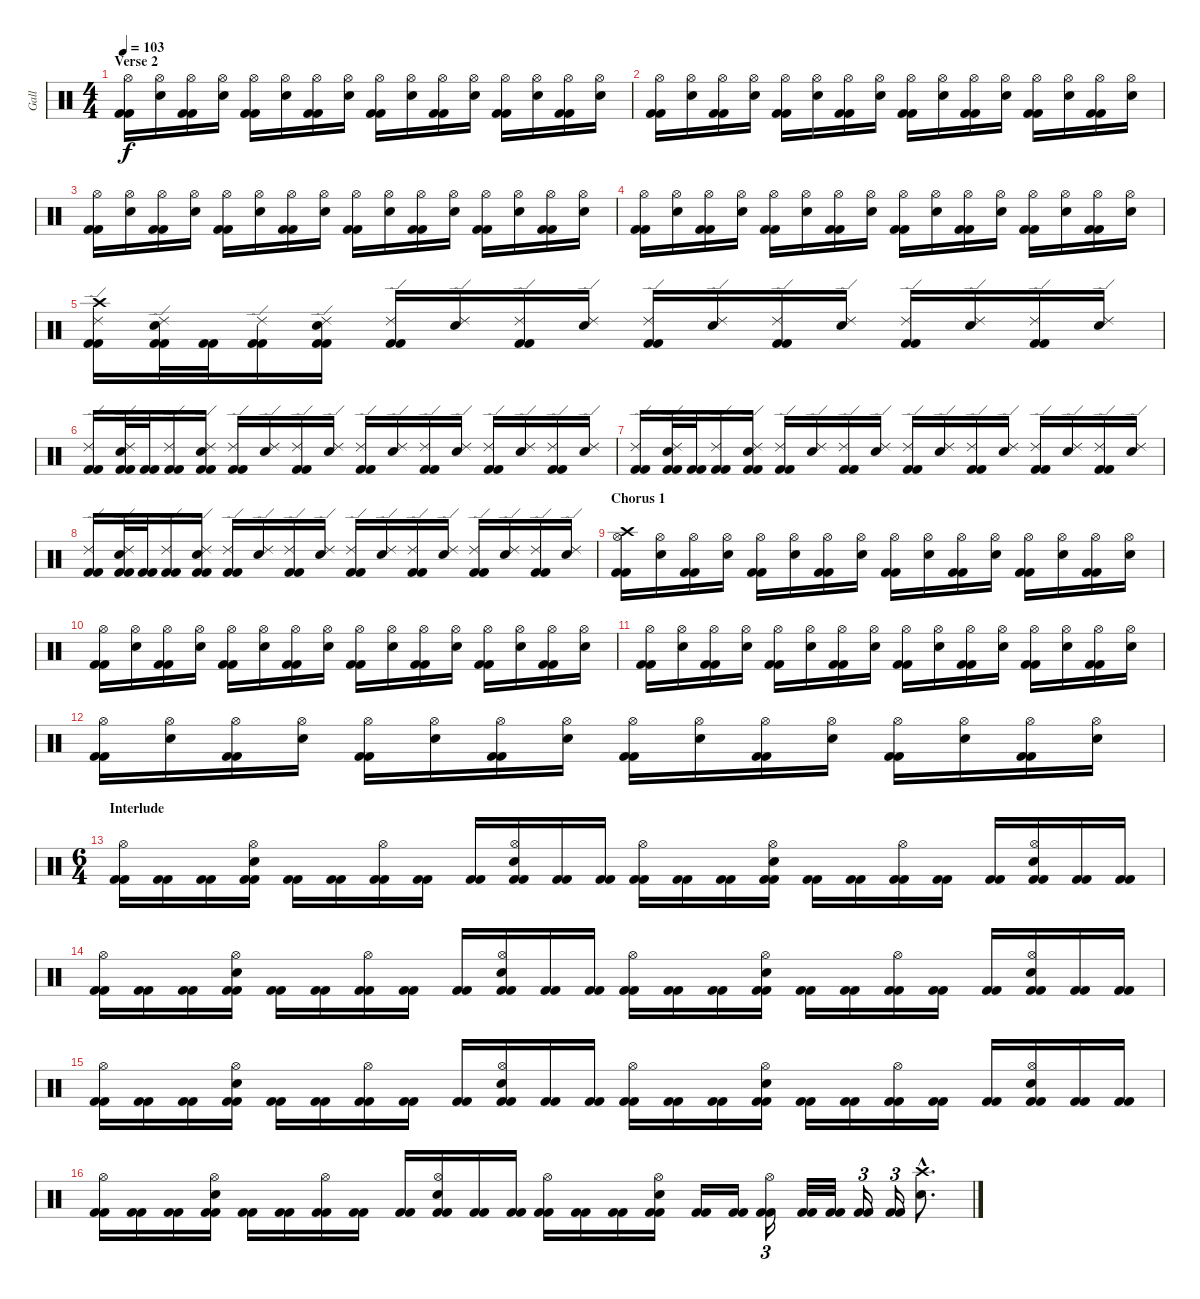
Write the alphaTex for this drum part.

\track ("Gall" "Gall") {instrument percussion}
\staff {score}
\articulation defaults
\ts (4 4)
\section ("" "Verse 2")
\tempo 103
\clef neutral
\ks c
("Kick (hit) 2" "Kick (hit) 2" "Hi-Hat (open)").16{dy f} ("Snare (hit) 2" "Hi-Hat (open)").16 ("Kick (hit) 2" "Kick (hit) 2" "Hi-Hat (open)").16 ("Snare (hit) 2" "Hi-Hat (open)").16 ("Kick (hit) 2" "Kick (hit) 2" "Hi-Hat (open)").16 ("Snare (hit) 2" "Hi-Hat (open)").16 ("Kick (hit) 2" "Kick (hit) 2" "Hi-Hat (open)").16 ("Snare (hit) 2" "Hi-Hat (open)").16 ("Kick (hit) 2" "Kick (hit) 2" "Hi-Hat (open)").16 ("Snare (hit) 2" "Hi-Hat (open)").16 ("Kick (hit) 2" "Kick (hit) 2" "Hi-Hat (open)").16 ("Snare (hit) 2" "Hi-Hat (open)").16 ("Kick (hit) 2" "Kick (hit) 2" "Hi-Hat (open)").16 ("Snare (hit) 2" "Hi-Hat (open)").16 ("Kick (hit) 2" "Kick (hit) 2" "Hi-Hat (open)").16 ("Snare (hit) 2" "Hi-Hat (open)").16 |
("Kick (hit) 2" "Kick (hit) 2" "Hi-Hat (open)").16 ("Snare (hit) 2" "Hi-Hat (open)").16 ("Kick (hit) 2" "Kick (hit) 2" "Hi-Hat (open)").16 ("Snare (hit) 2" "Hi-Hat (open)").16 ("Kick (hit) 2" "Kick (hit) 2" "Hi-Hat (open)").16 ("Snare (hit) 2" "Hi-Hat (open)").16 ("Kick (hit) 2" "Kick (hit) 2" "Hi-Hat (open)").16 ("Snare (hit) 2" "Hi-Hat (open)").16 ("Kick (hit) 2" "Kick (hit) 2" "Hi-Hat (open)").16 ("Snare (hit) 2" "Hi-Hat (open)").16 ("Kick (hit) 2" "Kick (hit) 2" "Hi-Hat (open)").16 ("Snare (hit) 2" "Hi-Hat (open)").16 ("Kick (hit) 2" "Kick (hit) 2" "Hi-Hat (open)").16 ("Snare (hit) 2" "Hi-Hat (open)").16 ("Kick (hit) 2" "Kick (hit) 2" "Hi-Hat (open)").16 ("Snare (hit) 2" "Hi-Hat (open)").16 |
("Kick (hit) 2" "Kick (hit) 2" "Hi-Hat (open)").16 ("Snare (hit) 2" "Hi-Hat (open)").16 ("Kick (hit) 2" "Kick (hit) 2" "Hi-Hat (open)").16 ("Snare (hit) 2" "Hi-Hat (open)").16 ("Kick (hit) 2" "Kick (hit) 2" "Hi-Hat (open)").16 ("Snare (hit) 2" "Hi-Hat (open)").16 ("Kick (hit) 2" "Kick (hit) 2" "Hi-Hat (open)").16 ("Snare (hit) 2" "Hi-Hat (open)").16 ("Kick (hit) 2" "Kick (hit) 2" "Hi-Hat (open)").16 ("Snare (hit) 2" "Hi-Hat (open)").16 ("Kick (hit) 2" "Kick (hit) 2" "Hi-Hat (open)").16 ("Snare (hit) 2" "Hi-Hat (open)").16 ("Kick (hit) 2" "Kick (hit) 2" "Hi-Hat (open)").16 ("Snare (hit) 2" "Hi-Hat (open)").16 ("Kick (hit) 2" "Kick (hit) 2" "Hi-Hat (open)").16 ("Snare (hit) 2" "Hi-Hat (open)").16 |
("Kick (hit) 2" "Kick (hit) 2" "Hi-Hat (open)").16 ("Snare (hit) 2" "Hi-Hat (open)").16 ("Kick (hit) 2" "Kick (hit) 2" "Hi-Hat (open)").16 ("Snare (hit) 2" "Hi-Hat (open)").16 ("Kick (hit) 2" "Kick (hit) 2" "Hi-Hat (open)").16 ("Snare (hit) 2" "Hi-Hat (open)").16 ("Kick (hit) 2" "Kick (hit) 2" "Hi-Hat (open)").16 ("Snare (hit) 2" "Hi-Hat (open)").16 ("Kick (hit) 2" "Kick (hit) 2" "Hi-Hat (open)").16 ("Snare (hit) 2" "Hi-Hat (open)").16 ("Kick (hit) 2" "Kick (hit) 2" "Hi-Hat (open)").16 ("Snare (hit) 2" "Hi-Hat (open)").16 ("Kick (hit) 2" "Kick (hit) 2" "Hi-Hat (open)").16 ("Snare (hit) 2" "Hi-Hat (open)").16 ("Kick (hit) 2" "Kick (hit) 2" "Hi-Hat (open)").16 ("Snare (hit) 2" "Hi-Hat (open)").16 |
("Kick (hit) 2" "Kick (hit) 2" "Ride (edge) 2" "Crash high (hit)").16 ("Kick (hit) 2" "Kick (hit) 2" "Snare (hit) 2" "Ride (edge) 2").32 ("Kick (hit) 2" "Kick (hit) 2").32 ("Kick (hit) 2" "Kick (hit) 2" "Ride (edge) 2").16 ("Kick (hit) 2" "Kick (hit) 2" "Snare (hit) 2" "Ride (edge) 2").16 ("Kick (hit) 2" "Kick (hit) 2" "Ride (edge) 2").16 ("Snare (hit) 2" "Ride (edge) 2").16 ("Kick (hit) 2" "Kick (hit) 2" "Ride (edge) 2").16 ("Snare (hit) 2" "Ride (edge) 2").16 ("Kick (hit) 2" "Kick (hit) 2" "Ride (edge) 2").16 ("Snare (hit) 2" "Ride (edge) 2").16 ("Kick (hit) 2" "Kick (hit) 2" "Ride (edge) 2").16 ("Snare (hit) 2" "Ride (edge) 2").16 ("Kick (hit) 2" "Kick (hit) 2" "Ride (edge) 2").16 ("Snare (hit) 2" "Ride (edge) 2").16 ("Kick (hit) 2" "Kick (hit) 2" "Ride (edge) 2").16 ("Snare (hit) 2" "Ride (edge) 2").16 |
("Kick (hit) 2" "Kick (hit) 2" "Ride (edge) 2").16 ("Kick (hit) 2" "Kick (hit) 2" "Snare (hit) 2" "Ride (edge) 2").32 ("Kick (hit) 2" "Kick (hit) 2").32 ("Kick (hit) 2" "Kick (hit) 2" "Ride (edge) 2").16 ("Kick (hit) 2" "Kick (hit) 2" "Snare (hit) 2" "Ride (edge) 2").16 ("Kick (hit) 2" "Kick (hit) 2" "Ride (edge) 2").16 ("Snare (hit) 2" "Ride (edge) 2").16 ("Kick (hit) 2" "Kick (hit) 2" "Ride (edge) 2").16 ("Snare (hit) 2" "Ride (edge) 2").16 ("Kick (hit) 2" "Kick (hit) 2" "Ride (edge) 2").16 ("Snare (hit) 2" "Ride (edge) 2").16 ("Kick (hit) 2" "Kick (hit) 2" "Ride (edge) 2").16 ("Snare (hit) 2" "Ride (edge) 2").16 ("Kick (hit) 2" "Kick (hit) 2" "Ride (edge) 2").16 ("Snare (hit) 2" "Ride (edge) 2").16 ("Kick (hit) 2" "Kick (hit) 2" "Ride (edge) 2").16 ("Snare (hit) 2" "Ride (edge) 2").16 |
("Kick (hit) 2" "Kick (hit) 2" "Ride (edge) 2").16 ("Kick (hit) 2" "Kick (hit) 2" "Snare (hit) 2" "Ride (edge) 2").32 ("Kick (hit) 2" "Kick (hit) 2").32 ("Kick (hit) 2" "Kick (hit) 2" "Ride (edge) 2").16 ("Kick (hit) 2" "Kick (hit) 2" "Snare (hit) 2" "Ride (edge) 2").16 ("Kick (hit) 2" "Kick (hit) 2" "Ride (edge) 2").16 ("Snare (hit) 2" "Ride (edge) 2").16 ("Kick (hit) 2" "Kick (hit) 2" "Ride (edge) 2").16 ("Snare (hit) 2" "Ride (edge) 2").16 ("Kick (hit) 2" "Kick (hit) 2" "Ride (edge) 2").16 ("Snare (hit) 2" "Ride (edge) 2").16 ("Kick (hit) 2" "Kick (hit) 2" "Ride (edge) 2").16 ("Snare (hit) 2" "Ride (edge) 2").16 ("Kick (hit) 2" "Kick (hit) 2" "Ride (edge) 2").16 ("Snare (hit) 2" "Ride (edge) 2").16 ("Kick (hit) 2" "Kick (hit) 2" "Ride (edge) 2").16 ("Snare (hit) 2" "Ride (edge) 2").16 |
("Kick (hit) 2" "Kick (hit) 2" "Ride (edge) 2").16 ("Kick (hit) 2" "Kick (hit) 2" "Snare (hit) 2" "Ride (edge) 2").32 ("Kick (hit) 2" "Kick (hit) 2").32 ("Kick (hit) 2" "Kick (hit) 2" "Ride (edge) 2").16 ("Kick (hit) 2" "Kick (hit) 2" "Snare (hit) 2" "Ride (edge) 2").16 ("Kick (hit) 2" "Kick (hit) 2" "Ride (edge) 2").16 ("Snare (hit) 2" "Ride (edge) 2").16 ("Kick (hit) 2" "Kick (hit) 2" "Ride (edge) 2").16 ("Snare (hit) 2" "Ride (edge) 2").16 ("Kick (hit) 2" "Kick (hit) 2" "Ride (edge) 2").16 ("Snare (hit) 2" "Ride (edge) 2").16 ("Kick (hit) 2" "Kick (hit) 2" "Ride (edge) 2").16 ("Snare (hit) 2" "Ride (edge) 2").16 ("Kick (hit) 2" "Kick (hit) 2" "Ride (edge) 2").16 ("Snare (hit) 2" "Ride (edge) 2").16 ("Kick (hit) 2" "Kick (hit) 2" "Ride (edge) 2").16 ("Snare (hit) 2" "Ride (edge) 2").16 |
\section ("" "Chorus 1")
("Kick (hit) 2" "Kick (hit) 2" "Hi-Hat (open)" "Crash high (hit)").16 ("Snare (hit) 2" "Hi-Hat (open)").16 ("Kick (hit) 2" "Kick (hit) 2" "Hi-Hat (open)").16 ("Snare (hit) 2" "Hi-Hat (open)").16 ("Kick (hit) 2" "Kick (hit) 2" "Hi-Hat (open)").16 ("Snare (hit) 2" "Hi-Hat (open)").16 ("Kick (hit) 2" "Kick (hit) 2" "Hi-Hat (open)").16 ("Snare (hit) 2" "Hi-Hat (open)").16 ("Kick (hit) 2" "Kick (hit) 2" "Hi-Hat (open)").16 ("Snare (hit) 2" "Hi-Hat (open)").16 ("Kick (hit) 2" "Kick (hit) 2" "Hi-Hat (open)").16 ("Snare (hit) 2" "Hi-Hat (open)").16 ("Kick (hit) 2" "Kick (hit) 2" "Hi-Hat (open)").16 ("Snare (hit) 2" "Hi-Hat (open)").16 ("Kick (hit) 2" "Kick (hit) 2" "Hi-Hat (open)").16 ("Snare (hit) 2" "Hi-Hat (open)").16 |
("Kick (hit) 2" "Kick (hit) 2" "Hi-Hat (open)").16 ("Snare (hit) 2" "Hi-Hat (open)").16 ("Kick (hit) 2" "Kick (hit) 2" "Hi-Hat (open)").16 ("Snare (hit) 2" "Hi-Hat (open)").16 ("Kick (hit) 2" "Kick (hit) 2" "Hi-Hat (open)").16 ("Snare (hit) 2" "Hi-Hat (open)").16 ("Kick (hit) 2" "Kick (hit) 2" "Hi-Hat (open)").16 ("Snare (hit) 2" "Hi-Hat (open)").16 ("Kick (hit) 2" "Kick (hit) 2" "Hi-Hat (open)").16 ("Snare (hit) 2" "Hi-Hat (open)").16 ("Kick (hit) 2" "Kick (hit) 2" "Hi-Hat (open)").16 ("Snare (hit) 2" "Hi-Hat (open)").16 ("Kick (hit) 2" "Kick (hit) 2" "Hi-Hat (open)").16 ("Snare (hit) 2" "Hi-Hat (open)").16 ("Kick (hit) 2" "Kick (hit) 2" "Hi-Hat (open)").16 ("Snare (hit) 2" "Hi-Hat (open)").16 |
("Kick (hit) 2" "Kick (hit) 2" "Hi-Hat (open)").16 ("Snare (hit) 2" "Hi-Hat (open)").16 ("Kick (hit) 2" "Kick (hit) 2" "Hi-Hat (open)").16 ("Snare (hit) 2" "Hi-Hat (open)").16 ("Kick (hit) 2" "Kick (hit) 2" "Hi-Hat (open)").16 ("Snare (hit) 2" "Hi-Hat (open)").16 ("Kick (hit) 2" "Kick (hit) 2" "Hi-Hat (open)").16 ("Snare (hit) 2" "Hi-Hat (open)").16 ("Kick (hit) 2" "Kick (hit) 2" "Hi-Hat (open)").16 ("Snare (hit) 2" "Hi-Hat (open)").16 ("Kick (hit) 2" "Kick (hit) 2" "Hi-Hat (open)").16 ("Snare (hit) 2" "Hi-Hat (open)").16 ("Kick (hit) 2" "Kick (hit) 2" "Hi-Hat (open)").16 ("Snare (hit) 2" "Hi-Hat (open)").16 ("Kick (hit) 2" "Kick (hit) 2" "Hi-Hat (open)").16 ("Snare (hit) 2" "Hi-Hat (open)").16 |
("Kick (hit) 2" "Kick (hit) 2" "Hi-Hat (open)").16 ("Snare (hit) 2" "Hi-Hat (open)").16 ("Kick (hit) 2" "Kick (hit) 2" "Hi-Hat (open)").16 ("Snare (hit) 2" "Hi-Hat (open)").16 ("Kick (hit) 2" "Kick (hit) 2" "Hi-Hat (open)").16 ("Snare (hit) 2" "Hi-Hat (open)").16 ("Kick (hit) 2" "Kick (hit) 2" "Hi-Hat (open)").16 ("Snare (hit) 2" "Hi-Hat (open)").16 ("Kick (hit) 2" "Kick (hit) 2" "Hi-Hat (open)").16 ("Snare (hit) 2" "Hi-Hat (open)").16 ("Kick (hit) 2" "Kick (hit) 2" "Hi-Hat (open)").16 ("Snare (hit) 2" "Hi-Hat (open)").16 ("Kick (hit) 2" "Kick (hit) 2" "Hi-Hat (open)").16 ("Snare (hit) 2" "Hi-Hat (open)").16 ("Kick (hit) 2" "Kick (hit) 2" "Hi-Hat (open)").16 ("Snare (hit) 2" "Hi-Hat (open)").16 |
\ts (6 4)
\section ("" "Interlude")
("Kick (hit) 2" "Kick (hit) 2" "Hi-Hat (open)").16 ("Kick (hit) 2" "Kick (hit) 2").16 ("Kick (hit) 2" "Kick (hit) 2").16 ("Kick (hit) 2" "Kick (hit) 2" "Snare (hit) 2" "Hi-Hat (open)").16 ("Kick (hit) 2" "Kick (hit) 2").16 ("Kick (hit) 2" "Kick (hit) 2").16 ("Kick (hit) 2" "Kick (hit) 2" "Hi-Hat (open)").16 ("Kick (hit) 2" "Kick (hit) 2").16 ("Kick (hit) 2" "Kick (hit) 2").16 ("Kick (hit) 2" "Kick (hit) 2" "Snare (hit) 2" "Hi-Hat (open)").16 ("Kick (hit) 2" "Kick (hit) 2").16 ("Kick (hit) 2" "Kick (hit) 2").16 ("Kick (hit) 2" "Kick (hit) 2" "Hi-Hat (open)").16 ("Kick (hit) 2" "Kick (hit) 2").16 ("Kick (hit) 2" "Kick (hit) 2").16 ("Kick (hit) 2" "Kick (hit) 2" "Snare (hit) 2" "Hi-Hat (open)").16 ("Kick (hit) 2" "Kick (hit) 2").16 ("Kick (hit) 2" "Kick (hit) 2").16 ("Kick (hit) 2" "Kick (hit) 2" "Hi-Hat (open)").16 ("Kick (hit) 2" "Kick (hit) 2").16 ("Kick (hit) 2" "Kick (hit) 2").16 ("Kick (hit) 2" "Kick (hit) 2" "Snare (hit) 2" "Hi-Hat (open)").16 ("Kick (hit) 2" "Kick (hit) 2").16 ("Kick (hit) 2" "Kick (hit) 2").16 |
("Kick (hit) 2" "Kick (hit) 2" "Hi-Hat (open)").16 ("Kick (hit) 2" "Kick (hit) 2").16 ("Kick (hit) 2" "Kick (hit) 2").16 ("Kick (hit) 2" "Kick (hit) 2" "Snare (hit) 2" "Hi-Hat (open)").16 ("Kick (hit) 2" "Kick (hit) 2").16 ("Kick (hit) 2" "Kick (hit) 2").16 ("Kick (hit) 2" "Kick (hit) 2" "Hi-Hat (open)").16 ("Kick (hit) 2" "Kick (hit) 2").16 ("Kick (hit) 2" "Kick (hit) 2").16 ("Kick (hit) 2" "Kick (hit) 2" "Snare (hit) 2" "Hi-Hat (open)").16 ("Kick (hit) 2" "Kick (hit) 2").16 ("Kick (hit) 2" "Kick (hit) 2").16 ("Kick (hit) 2" "Kick (hit) 2" "Hi-Hat (open)").16 ("Kick (hit) 2" "Kick (hit) 2").16 ("Kick (hit) 2" "Kick (hit) 2").16 ("Kick (hit) 2" "Kick (hit) 2" "Snare (hit) 2" "Hi-Hat (open)").16 ("Kick (hit) 2" "Kick (hit) 2").16 ("Kick (hit) 2" "Kick (hit) 2").16 ("Kick (hit) 2" "Kick (hit) 2" "Hi-Hat (open)").16 ("Kick (hit) 2" "Kick (hit) 2").16 ("Kick (hit) 2" "Kick (hit) 2").16 ("Kick (hit) 2" "Kick (hit) 2" "Snare (hit) 2" "Hi-Hat (open)").16 ("Kick (hit) 2" "Kick (hit) 2").16 ("Kick (hit) 2" "Kick (hit) 2").16 |
("Kick (hit) 2" "Kick (hit) 2" "Hi-Hat (open)").16 ("Kick (hit) 2" "Kick (hit) 2").16 ("Kick (hit) 2" "Kick (hit) 2").16 ("Kick (hit) 2" "Kick (hit) 2" "Snare (hit) 2" "Hi-Hat (open)").16 ("Kick (hit) 2" "Kick (hit) 2").16 ("Kick (hit) 2" "Kick (hit) 2").16 ("Kick (hit) 2" "Kick (hit) 2" "Hi-Hat (open)").16 ("Kick (hit) 2" "Kick (hit) 2").16 ("Kick (hit) 2" "Kick (hit) 2").16 ("Kick (hit) 2" "Kick (hit) 2" "Snare (hit) 2" "Hi-Hat (open)").16 ("Kick (hit) 2" "Kick (hit) 2").16 ("Kick (hit) 2" "Kick (hit) 2").16 ("Kick (hit) 2" "Kick (hit) 2" "Hi-Hat (open)").16 ("Kick (hit) 2" "Kick (hit) 2").16 ("Kick (hit) 2" "Kick (hit) 2").16 ("Kick (hit) 2" "Kick (hit) 2" "Snare (hit) 2" "Hi-Hat (open)").16 ("Kick (hit) 2" "Kick (hit) 2").16 ("Kick (hit) 2" "Kick (hit) 2").16 ("Kick (hit) 2" "Kick (hit) 2" "Hi-Hat (open)").16 ("Kick (hit) 2" "Kick (hit) 2").16 ("Kick (hit) 2" "Kick (hit) 2").16 ("Kick (hit) 2" "Kick (hit) 2" "Snare (hit) 2" "Hi-Hat (open)").16 ("Kick (hit) 2" "Kick (hit) 2").16 ("Kick (hit) 2" "Kick (hit) 2").16 |
("Kick (hit) 2" "Kick (hit) 2" "Hi-Hat (open)").16 ("Kick (hit) 2" "Kick (hit) 2").16 ("Kick (hit) 2" "Kick (hit) 2").16 ("Kick (hit) 2" "Kick (hit) 2" "Snare (hit) 2" "Hi-Hat (open)").16 ("Kick (hit) 2" "Kick (hit) 2").16 ("Kick (hit) 2" "Kick (hit) 2").16 ("Kick (hit) 2" "Kick (hit) 2" "Hi-Hat (open)").16 ("Kick (hit) 2" "Kick (hit) 2").16 ("Kick (hit) 2" "Kick (hit) 2").16 ("Kick (hit) 2" "Kick (hit) 2" "Snare (hit) 2" "Hi-Hat (open)").16 ("Kick (hit) 2" "Kick (hit) 2").16 ("Kick (hit) 2" "Kick (hit) 2").16 ("Kick (hit) 2" "Kick (hit) 2" "Hi-Hat (open)").16 ("Kick (hit) 2" "Kick (hit) 2").16 ("Kick (hit) 2" "Kick (hit) 2").16 ("Kick (hit) 2" "Kick (hit) 2" "Snare (hit) 2" "Hi-Hat (open)").16 ("Kick (hit) 2" "Kick (hit) 2").16 ("Kick (hit) 2" "Kick (hit) 2").16 ("Kick (hit) 2" "Kick (hit) 2" "Hi-Hat (open)").16{tu (3 2)} ("Kick (hit) 2" "Kick (hit) 2").32 ("Kick (hit) 2" "Kick (hit) 2").32 ("Kick (hit) 2" "Kick (hit) 2").16{tu (3 2)} ("Kick (hit) 2" "Kick (hit) 2").16{tu (3 2)} ("Snare (hit) 2"{hac} "Crash high (hit)"{hac}).8{d}
